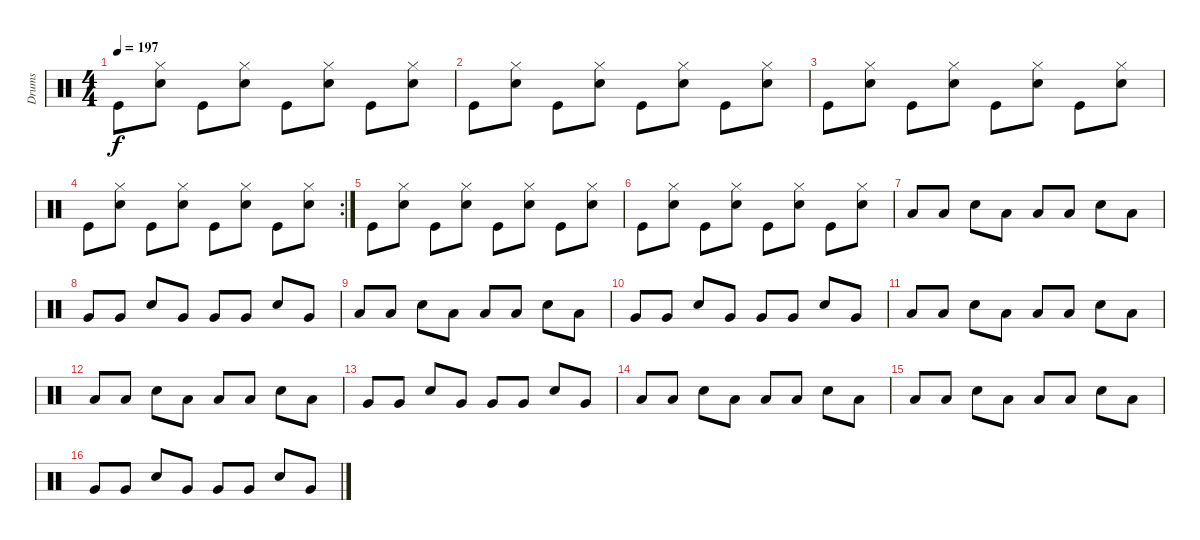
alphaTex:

\track ("Drums" "Drums") {instrument percussion}
\staff {score}
\articulation defaults
\ts (4 4)
\tempo 197
\clef neutral
\ks c "Kick (hit)".8{dy f}
("Hi-Hat (closed)" "Snare (hit) 2").8 "Kick (hit)".8 ("Hi-Hat (closed)" "Snare (hit) 2").8 "Kick (hit)".8 ("Hi-Hat (closed)" "Snare (hit) 2").8 "Kick (hit)".8 ("Hi-Hat (closed)" "Snare (hit) 2").8 |
"Kick (hit)".8 ("Hi-Hat (closed)" "Snare (hit) 2").8 "Kick (hit)".8 ("Hi-Hat (closed)" "Snare (hit) 2").8 "Kick (hit)".8 ("Hi-Hat (closed)" "Snare (hit) 2").8 "Kick (hit)".8 ("Hi-Hat (closed)" "Snare (hit) 2").8 |
"Kick (hit)".8 ("Hi-Hat (closed)" "Snare (hit) 2").8 "Kick (hit)".8 ("Hi-Hat (closed)" "Snare (hit) 2").8 "Kick (hit)".8 ("Hi-Hat (closed)" "Snare (hit) 2").8 "Kick (hit)".8 ("Hi-Hat (closed)" "Snare (hit) 2").8 |
\rc 2 "Kick (hit)".8
("Hi-Hat (closed)" "Snare (hit) 2").8 "Kick (hit)".8 ("Hi-Hat (closed)" "Snare (hit) 2").8 "Kick (hit)".8 ("Hi-Hat (closed)" "Snare (hit) 2").8 "Kick (hit)".8 ("Hi-Hat (closed)" "Snare (hit) 2").8 |
"Kick (hit)".8 ("Hi-Hat (closed)" "Snare (hit) 2").8 "Kick (hit)".8 ("Hi-Hat (closed)" "Snare (hit) 2").8 "Kick (hit)".8 ("Hi-Hat (closed)" "Snare (hit) 2").8 "Kick (hit)".8 ("Hi-Hat (closed)" "Snare (hit) 2").8 |
"Kick (hit)".8 ("Hi-Hat (closed)" "Snare (hit) 2").8 "Kick (hit)".8 ("Hi-Hat (closed)" "Snare (hit) 2").8 "Kick (hit)".8 ("Hi-Hat (closed)" "Snare (hit) 2").8 "Kick (hit)".8 ("Hi-Hat (closed)" "Snare (hit) 2").8 |
"Low Floor Tom (hit)".8 "Low Floor Tom (hit)".8 "Snare (hit) 2".8 "Low Floor Tom (hit)".8 "Low Floor Tom (hit)".8 "Low Floor Tom (hit)".8 "Snare (hit) 2".8 "Low Floor Tom (hit)".8 |
"Very Low Tom (hit)".8 "Very Low Tom (hit)".8 "Snare (hit) 2".8 "Very Low Tom (hit)".8 "Very Low Tom (hit)".8 "Very Low Tom (hit)".8 "Snare (hit) 2".8 "Very Low Tom (hit)".8 |
"Low Tom (hit)".8 "Low Tom (hit)".8 "Snare (hit) 2".8 "Low Tom (hit)".8 "Low Tom (hit)".8 "Low Tom (hit)".8 "Snare (hit) 2".8 "Low Tom (hit)".8 |
"Very Low Tom (hit)".8 "Very Low Tom (hit)".8 "Snare (hit) 2".8 "Very Low Tom (hit)".8 "Very Low Tom (hit)".8 "Very Low Tom (hit)".8 "Snare (hit) 2".8 "Very Low Tom (hit)".8 |
"Low Tom (hit)".8 "Low Tom (hit)".8 "Snare (hit) 2".8 "Low Tom (hit)".8 "Low Tom (hit)".8 "Low Tom (hit)".8 "Snare (hit) 2".8 "Low Tom (hit)".8 |
"Low Floor Tom (hit)".8 "Low Floor Tom (hit)".8 "Snare (hit) 2".8 "Low Floor Tom (hit)".8 "Low Floor Tom (hit)".8 "Low Floor Tom (hit)".8 "Snare (hit) 2".8 "Low Floor Tom (hit)".8 |
"Very Low Tom (hit)".8 "Very Low Tom (hit)".8 "Snare (hit) 2".8 "Very Low Tom (hit)".8 "Very Low Tom (hit)".8 "Very Low Tom (hit)".8 "Snare (hit) 2".8 "Very Low Tom (hit)".8 |
"Low Tom (hit)".8 "Low Tom (hit)".8 "Snare (hit) 2".8 "Low Tom (hit)".8 "Low Tom (hit)".8 "Low Tom (hit)".8 "Snare (hit) 2".8 "Low Tom (hit)".8 |
"Low Floor Tom (hit)".8 "Low Floor Tom (hit)".8 "Snare (hit) 2".8 "Low Floor Tom (hit)".8 "Low Floor Tom (hit)".8 "Low Floor Tom (hit)".8 "Snare (hit) 2".8 "Low Floor Tom (hit)".8 |
"Very Low Tom (hit)".8 "Very Low Tom (hit)".8 "Snare (hit) 2".8 "Very Low Tom (hit)".8 "Very Low Tom (hit)".8 "Very Low Tom (hit)".8 "Snare (hit) 2".8 "Very Low Tom (hit)".8
